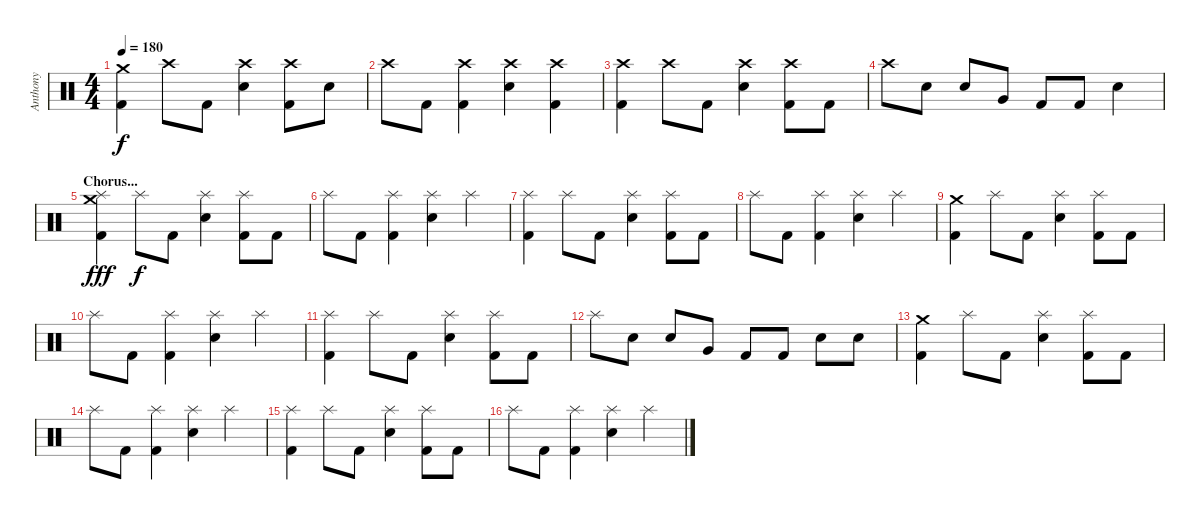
\track ("Anthony" "Anthony") {instrument percussion}
\staff {score}
\articulation defaults
\ts (4 4)
\tempo 180
\clef neutral
\ks c
("Crash medium (hit)" "Kick (hit) 2").4{dy f} "Crash high (hit)".8 "Kick (hit) 2".8 ("Crash high (hit)" "Electric Snare (hit)").4 ("Crash high (hit)" "Kick (hit) 2").8 "Electric Snare (hit)".8 |
"Crash high (hit)".8 "Kick (hit) 2".8 ("Crash high (hit)" "Kick (hit) 2").4 ("Crash high (hit)" "Electric Snare (hit)").4 ("Crash high (hit)" "Kick (hit) 2").4 |
("Crash high (hit)" "Kick (hit) 2").4 "Crash high (hit)".8 "Kick (hit) 2".8 ("Crash high (hit)" "Electric Snare (hit)").4 ("Crash high (hit)" "Kick (hit) 2").8 "Kick (hit) 2".8 |
"Crash high (hit)".8 "Electric Snare (hit)".8 "Electric Snare (hit)".8 "Very Low Tom (hit)".8 "Kick (hit) 2".8 "Kick (hit) 2".8 "Electric Snare (hit)".4 |
\section ("" "Chorus...")
("Crash medium (hit)" "Splash (hit)" "Kick (hit) 2").4{dy fff} "Splash (hit)".8{dy f} "Kick (hit) 2".8 ("Splash (hit)" "Electric Snare (hit)").4 ("Splash (hit)" "Kick (hit) 2").8 "Kick (hit) 2".8 |
"Splash (hit)".8 "Kick (hit) 2".8 ("Splash (hit)" "Kick (hit) 2").4 ("Splash (hit)" "Electric Snare (hit)").4 "Splash (hit)".4 |
("Splash (hit)" "Kick (hit) 2").4 "Splash (hit)".8 "Kick (hit) 2".8 ("Splash (hit)" "Electric Snare (hit)").4 ("Splash (hit)" "Kick (hit) 2").8 "Kick (hit) 2".8 |
"Splash (hit)".8 "Kick (hit) 2".8 ("Splash (hit)" "Kick (hit) 2").4 ("Splash (hit)" "Electric Snare (hit)").4 "Splash (hit)".4 |
("Crash medium (hit)" "Kick (hit) 2").4 "Splash (hit)".8 "Kick (hit) 2".8 ("Splash (hit)" "Electric Snare (hit)").4 ("Splash (hit)" "Kick (hit) 2").8 "Kick (hit) 2".8 |
"Splash (hit)".8 "Kick (hit) 2".8 ("Splash (hit)" "Kick (hit) 2").4 ("Splash (hit)" "Electric Snare (hit)").4 "Splash (hit)".4 |
("Splash (hit)" "Kick (hit) 2").4 "Splash (hit)".8 "Kick (hit) 2".8 ("Splash (hit)" "Electric Snare (hit)").4 ("Splash (hit)" "Kick (hit) 2").8 "Kick (hit) 2".8 |
"Splash (hit)".8 "Electric Snare (hit)".8 "Electric Snare (hit)".8 "Very Low Tom (hit)".8 "Kick (hit) 2".8 "Kick (hit) 2".8 "Electric Snare (hit)".8 "Electric Snare (hit)".8 |
("Crash medium (hit)" "Kick (hit) 2").4 "Splash (hit)".8 "Kick (hit) 2".8 ("Splash (hit)" "Electric Snare (hit)").4 ("Splash (hit)" "Kick (hit) 2").8 "Kick (hit) 2".8 |
"Splash (hit)".8 "Kick (hit) 2".8 ("Splash (hit)" "Kick (hit) 2").4 ("Splash (hit)" "Electric Snare (hit)").4 "Splash (hit)".4 |
("Splash (hit)" "Kick (hit) 2").4 "Splash (hit)".8 "Kick (hit) 2".8 ("Splash (hit)" "Electric Snare (hit)").4 ("Splash (hit)" "Kick (hit) 2").8 "Kick (hit) 2".8 |
"Splash (hit)".8 "Kick (hit) 2".8 ("Splash (hit)" "Kick (hit) 2").4 ("Splash (hit)" "Electric Snare (hit)").4 "Splash (hit)".4
